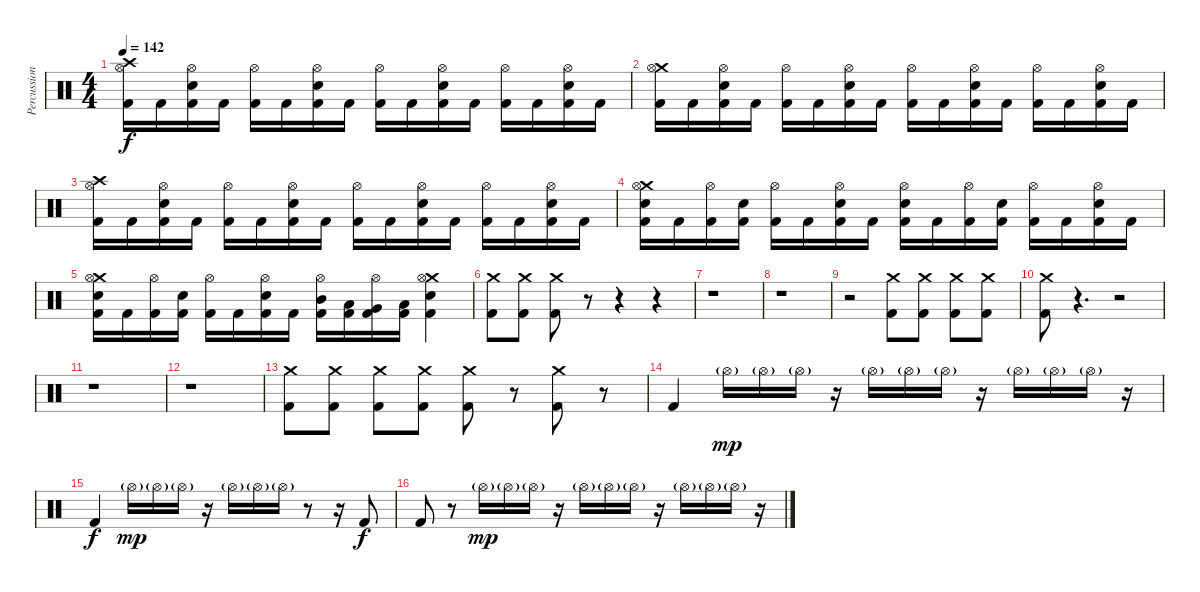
\track ("Percussion" "Percussion") {instrument percussion}
\staff {score}
\articulation defaults
\ts (4 4)
\tempo 142
\clef neutral
\ks c
("Crash high (hit)" "Hi-Hat (open)" "Kick (hit) 2").16{dy f} "Kick (hit) 2".16 ("Hi-Hat (open)" "Electric Snare (hit)" "Kick (hit) 2").16 "Kick (hit) 2".16 ("Hi-Hat (open)" "Kick (hit) 2").16 "Kick (hit) 2".16 ("Hi-Hat (open)" "Electric Snare (hit)" "Kick (hit) 2").16 "Kick (hit) 2".16 ("Hi-Hat (open)" "Kick (hit) 2").16 "Kick (hit) 2".16 ("Hi-Hat (open)" "Electric Snare (hit)" "Kick (hit) 2").16 "Kick (hit) 2".16 ("Hi-Hat (open)" "Kick (hit) 2").16 "Kick (hit) 2".16 ("Hi-Hat (open)" "Electric Snare (hit)" "Kick (hit) 2").16 "Kick (hit) 2".16 |
("Crash medium (hit)" "Hi-Hat (open)" "Kick (hit) 2").16 "Kick (hit) 2".16 ("Hi-Hat (open)" "Electric Snare (hit)" "Kick (hit) 2").16 "Kick (hit) 2".16 ("Hi-Hat (open)" "Kick (hit) 2").16 "Kick (hit) 2".16 ("Hi-Hat (open)" "Electric Snare (hit)" "Kick (hit) 2").16 "Kick (hit) 2".16 ("Hi-Hat (open)" "Kick (hit) 2").16 "Kick (hit) 2".16 ("Hi-Hat (open)" "Electric Snare (hit)" "Kick (hit) 2").16 "Kick (hit) 2".16 ("Hi-Hat (open)" "Kick (hit) 2").16 "Kick (hit) 2".16 ("Hi-Hat (open)" "Electric Snare (hit)" "Kick (hit) 2").16 "Kick (hit) 2".16 |
("Crash high (hit)" "Hi-Hat (open)" "Kick (hit) 2").16 "Kick (hit) 2".16 ("Hi-Hat (open)" "Electric Snare (hit)" "Kick (hit) 2").16 "Kick (hit) 2".16 ("Hi-Hat (open)" "Kick (hit) 2").16 "Kick (hit) 2".16 ("Hi-Hat (open)" "Electric Snare (hit)" "Kick (hit) 2").16 "Kick (hit) 2".16 ("Hi-Hat (open)" "Kick (hit) 2").16 "Kick (hit) 2".16 ("Hi-Hat (open)" "Electric Snare (hit)" "Kick (hit) 2").16 "Kick (hit) 2".16 ("Hi-Hat (open)" "Kick (hit) 2").16 "Kick (hit) 2".16 ("Hi-Hat (open)" "Electric Snare (hit)" "Kick (hit) 2").16 "Kick (hit) 2".16 |
("Crash medium (hit)" "Hi-Hat (open)" "Electric Snare (hit)" "Kick (hit) 2").16 "Kick (hit) 2".16 ("Hi-Hat (open)" "Kick (hit) 2").16 ("Electric Snare (hit)" "Kick (hit) 2").16 ("Hi-Hat (open)" "Kick (hit) 2").16 "Kick (hit) 2".16 ("Hi-Hat (open)" "Electric Snare (hit)" "Kick (hit) 2").16 "Kick (hit) 2".16 ("Hi-Hat (open)" "Electric Snare (hit)" "Kick (hit) 2").16 "Kick (hit) 2".16 ("Hi-Hat (open)" "Kick (hit) 2").16 ("Electric Snare (hit)" "Kick (hit) 2").16 ("Hi-Hat (open)" "Kick (hit) 2").16 "Kick (hit) 2".16 ("Hi-Hat (open)" "Electric Snare (hit)" "Kick (hit) 2").16 "Kick (hit) 2".16 |
("Crash medium (hit)" "Hi-Hat (open)" "Electric Snare (hit)" "Kick (hit) 2").16 "Kick (hit) 2".16 ("Hi-Hat (open)" "Kick (hit) 2").16 ("Electric Snare (hit)" "Kick (hit) 2").16 ("Hi-Hat (open)" "Kick (hit) 2").16 "Kick (hit) 2".16 ("Hi-Hat (open)" "Electric Snare (hit)" "Kick (hit) 2").16 "Kick (hit) 2".16 ("Hi-Hat (open)" "Mid Tom (hit)" "Kick (hit) 2").16 ("Low Tom (hit)" "Kick (hit) 2").16 ("Hi-Hat (open)" "Very Low Tom (hit)" "Kick (hit) 2").16 ("Low Floor Tom (hit)" "Kick (hit) 2").16 ("Crash medium (hit)" "Hi-Hat (open)" "Electric Snare (hit)" "Kick (hit) 2").4 |
("Crash medium (hit)" "Kick (hit) 2").8 ("Crash medium (hit)" "Kick (hit) 2").8 ("Crash medium (hit)" "Kick (hit) 2").8 r.8 r.4 r.4 |
r.1 |
r.1 |
r.2 ("Crash medium (hit)" "Kick (hit) 2").8 ("Crash medium (hit)" "Kick (hit) 2").8 ("Crash medium (hit)" "Kick (hit) 2").8 ("Crash medium (hit)" "Kick (hit) 2").8 |
("Crash medium (hit)" "Kick (hit) 2").8 r.4{d} r.2 |
r.1 |
r.1 |
("Crash medium (hit)" "Kick (hit) 2").8 ("Crash medium (hit)" "Kick (hit) 2").8 ("Crash medium (hit)" "Kick (hit) 2").8 ("Crash medium (hit)" "Kick (hit) 2").8 ("Crash medium (hit)" "Kick (hit) 2").8 r.8 ("Crash medium (hit)" "Kick (hit) 2").8 r.8 |
"Kick (hit) 2".4 "Hi-Hat (open)"{g}.16{dy mp} "Hi-Hat (open)"{g}.16 "Hi-Hat (open)"{g}.16 r.16 "Hi-Hat (open)"{g}.16 "Hi-Hat (open)"{g}.16 "Hi-Hat (open)"{g}.16 r.16 "Hi-Hat (open)"{g}.16 "Hi-Hat (open)"{g}.16 "Hi-Hat (open)"{g}.16 r.16 |
"Kick (hit) 2".4{dy f} "Hi-Hat (open)"{g}.16{dy mp} "Hi-Hat (open)"{g}.16 "Hi-Hat (open)"{g}.16 r.16 "Hi-Hat (open)"{g}.16 "Hi-Hat (open)"{g}.16 "Hi-Hat (open)"{g}.16 r.8 r.16 "Kick (hit) 2".8{dy f} |
"Kick (hit) 2".8 r.8 "Hi-Hat (open)"{g}.16{dy mp} "Hi-Hat (open)"{g}.16 "Hi-Hat (open)"{g}.16 r.16 "Hi-Hat (open)"{g}.16 "Hi-Hat (open)"{g}.16 "Hi-Hat (open)"{g}.16 r.16 "Hi-Hat (open)"{g}.16 "Hi-Hat (open)"{g}.16 "Hi-Hat (open)"{g}.16 r.16
